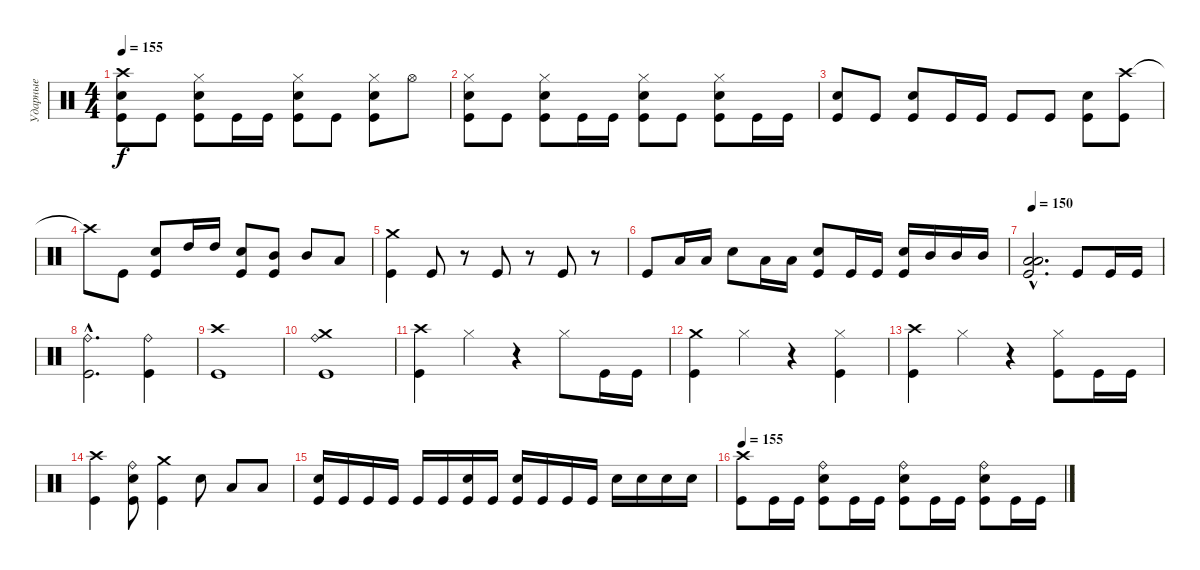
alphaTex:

\track ("Ударные" "Ударные") {instrument percussion}
\staff {score}
\articulation defaults
\ts (4 4)
\tempo 155
\clef neutral
\ks c
("Crash high (hit)" "Electric Snare (hit)" "Kick (hit)").8{dy f} "Kick (hit)".8 ("Hi-Hat (closed)" "Electric Snare (hit)" "Kick (hit)").8 "Kick (hit)".16 "Kick (hit)".16 ("Hi-Hat (closed)" "Electric Snare (hit)" "Kick (hit)").8 "Kick (hit)".8 ("Hi-Hat (closed)" "Electric Snare (hit)" "Kick (hit)").8 "Hi-Hat (open)".8 |
("Hi-Hat (closed)" "Electric Snare (hit)" "Kick (hit)").8 "Kick (hit)".8 ("Hi-Hat (closed)" "Electric Snare (hit)" "Kick (hit)").8 "Kick (hit)".16 "Kick (hit)".16 ("Hi-Hat (closed)" "Electric Snare (hit)" "Kick (hit)").8 "Kick (hit)".8 ("Hi-Hat (closed)" "Electric Snare (hit)" "Kick (hit)").8 "Kick (hit)".16 "Kick (hit)".16 |
("Electric Snare (hit)" "Kick (hit)").8 "Kick (hit)".8 ("Electric Snare (hit)" "Kick (hit)").8 "Kick (hit)".16 "Kick (hit)".16 "Kick (hit)".8 "Kick (hit)".8 ("Electric Snare (hit)" "Kick (hit)").8 ("Crash high (hit)" "Kick (hit)").8 |
"Crash high (hit)"{t}.8 "Kick (hit)".8 ("Electric Snare (hit)" "Kick (hit)").8 "High Tom (hit)".16 "High Tom (hit)".16 ("Electric Snare (hit)" "Kick (hit)").8 ("Mid Tom (hit)" "Kick (hit)").8 "Mid Tom (hit)".8 "Low Tom (hit)".8 |
("Crash medium (hit)" "Kick (hit)").4 "Kick (hit)".8 r.8 "Kick (hit)".8 r.8 "Kick (hit)".8 r.8 |
"Kick (hit)".8 "Low Tom (hit)".16 "Low Tom (hit)".16 "Electric Snare (hit)".8 "Low Tom (hit)".16 "Low Tom (hit)".16 ("Electric Snare (hit)" "Kick (hit)").8 "Kick (hit)".16 "Kick (hit)".16 ("Electric Snare (hit)" "Kick (hit)").16 "Mid Tom (hit)".16 "Mid Tom (hit)".16 "Mid Tom (hit)".16 |
\tempo 150
("Low Tom (hit)"{hac} "Low Tom (hit)"{hac} "Kick (hit)"{hac}).2{d} "Kick (hit)".8 "Kick (hit)".16 "Kick (hit)".16 |
("Ride (bell)"{hac} "Kick (hit)"{hac}).2{d} ("Ride (bell)" "Kick (hit)").4 |
("Crash high (hit)" "Kick (hit)").1 |
("Crash medium (hit)" "Ride (bell)" "Kick (hit)").1 |
("Crash high (hit)" "Kick (hit)").4 "Hi-Hat (closed)".4 r.4 "Hi-Hat (closed)".8 "Kick (hit)".16 "Kick (hit)".16 |
("Crash medium (hit)" "Kick (hit)").4 "Hi-Hat (closed)".4 r.4 ("Hi-Hat (closed)" "Kick (hit)").4 |
("Crash high (hit)" "Kick (hit)").4 "Hi-Hat (closed)".4 r.4 ("Hi-Hat (closed)" "Kick (hit)").8 "Kick (hit)".16 "Kick (hit)".16 |
("Crash high (hit)" "Kick (hit)").4 ("Ride (bell)" "Electric Snare (hit)" "Kick (hit)").8 ("Crash medium (hit)" "Kick (hit)").4 "Electric Snare (hit)".8 "Low Tom (hit)".8 "Low Tom (hit)".8 |
("Electric Snare (hit)" "Kick (hit)").16 "Kick (hit)".16 "Kick (hit)".16 "Kick (hit)".16 "Kick (hit)".16 "Kick (hit)".16 ("Electric Snare (hit)" "Kick (hit)").16 "Kick (hit)".16 ("Electric Snare (hit)" "Kick (hit)").16 "Kick (hit)".16 "Kick (hit)".16 "Kick (hit)".16 "Electric Snare (hit)".16 "Electric Snare (hit)".16 "Electric Snare (hit)".16 "Electric Snare (hit)".16 |
\tempo 155
("Crash high (hit)" "Kick (hit)").8 "Kick (hit)".16 "Kick (hit)".16 ("Ride (bell)" "Electric Snare (hit)" "Kick (hit)").8 "Kick (hit)".16 "Kick (hit)".16 ("Ride (bell)" "Electric Snare (hit)" "Kick (hit)").8 "Kick (hit)".16 "Kick (hit)".16 ("Ride (bell)" "Electric Snare (hit)" "Kick (hit)").8 "Kick (hit)".16 "Kick (hit)".16
